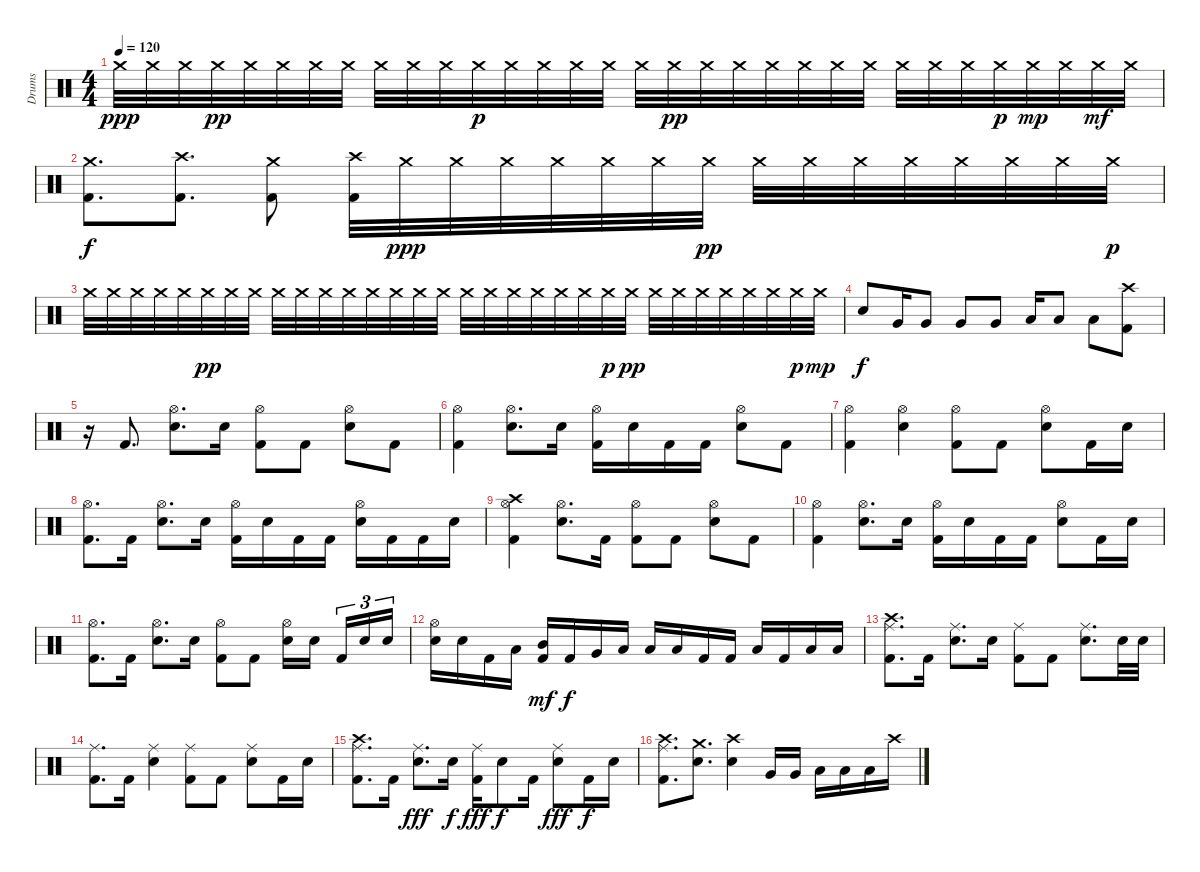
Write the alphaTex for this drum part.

\track ("Drums" "Drums") {instrument percussion}
\staff {score}
\articulation defaults
\ts (4 4)
\tempo 120
\clef neutral
\ks c "Crash medium (hit)".32{dy ppp} "Crash medium (hit)".32 "Crash medium (hit)".32 "Crash medium (hit)".32{dy pp} "Crash medium (hit)".32 "Crash medium (hit)".32 "Crash medium (hit)".32 "Crash medium (hit)".32 "Crash medium (hit)".32 "Crash medium (hit)".32 "Crash medium (hit)".32 "Crash medium (hit)".32{dy p} "Crash medium (hit)".32 "Crash medium (hit)".32 "Crash medium (hit)".32 "Crash medium (hit)".32 "Crash medium (hit)".32 "Crash medium (hit)".32{dy pp} "Crash medium (hit)".32 "Crash medium (hit)".32 "Crash medium (hit)".32 "Crash medium (hit)".32 "Crash medium (hit)".32 "Crash medium (hit)".32 "Crash medium (hit)".32 "Crash medium (hit)".32 "Crash medium (hit)".32 "Crash medium (hit)".32{dy p} "Crash medium (hit)".32{dy mp} "Crash medium (hit)".32 "Crash medium (hit)".32{dy mf} "Crash medium (hit)".32
|
("Crash medium (hit)" "Kick (hit) 2").8{d dy f} ("Crash high (hit)" "Kick (hit) 2").8{d} ("Crash medium (hit)" "Kick (hit) 2").8 ("Crash high (hit)" "Kick (hit) 2").32 "Crash medium (hit)".32{dy ppp} "Crash medium (hit)".32 "Crash medium (hit)".32 "Crash medium (hit)".32 "Crash medium (hit)".32 "Crash medium (hit)".32 "Crash medium (hit)".32{dy pp} "Crash medium (hit)".32 "Crash medium (hit)".32 "Crash medium (hit)".32 "Crash medium (hit)".32 "Crash medium (hit)".32 "Crash medium (hit)".32 "Crash medium (hit)".32 "Crash medium (hit)".32{dy p} |
"Crash medium (hit)".32 "Crash medium (hit)".32 "Crash medium (hit)".32 "Crash medium (hit)".32 "Crash medium (hit)".32 "Crash medium (hit)".32{dy pp} "Crash medium (hit)".32 "Crash medium (hit)".32 "Crash medium (hit)".32 "Crash medium (hit)".32 "Crash medium (hit)".32 "Crash medium (hit)".32 "Crash medium (hit)".32 "Crash medium (hit)".32 "Crash medium (hit)".32 "Crash medium (hit)".32 "Crash medium (hit)".32 "Crash medium (hit)".32 "Crash medium (hit)".32 "Crash medium (hit)".32 "Crash medium (hit)".32 "Crash medium (hit)".32 "Crash medium (hit)".32{dy p} "Crash medium (hit)".32{dy pp} "Crash medium (hit)".32 "Crash medium (hit)".32 "Crash medium (hit)".32 "Crash medium (hit)".32 "Crash medium (hit)".32 "Crash medium (hit)".32 "Crash medium (hit)".32{dy p} "Crash medium (hit)".32{dy mp} |
"Electric Snare (hit)".8{dy f} "Very Low Tom (hit)".16 "Very Low Tom (hit)".8 "Very Low Tom (hit)".8 "Very Low Tom (hit)".8 "Low Floor Tom (hit)".16 "Low Floor Tom (hit)".8 "Low Floor Tom (hit)".8 ("Crash high (hit)" "Kick (hit) 2").8 |
r.16 "Kick (hit) 2".8{d} ("Hi-Hat (open)" "Electric Snare (hit)").8{d} "Electric Snare (hit)".16 ("Hi-Hat (open)" "Kick (hit) 2").8 "Kick (hit) 2".8 ("Hi-Hat (open)" "Electric Snare (hit)").8 "Kick (hit) 2".8 |
("Hi-Hat (open)" "Kick (hit) 2").4 ("Hi-Hat (open)" "Electric Snare (hit)").8{d} "Electric Snare (hit)".16 ("Hi-Hat (open)" "Kick (hit) 2").16 "Electric Snare (hit)".16 "Kick (hit) 2".16 "Kick (hit) 2".16 ("Hi-Hat (open)" "Electric Snare (hit)").8 "Kick (hit) 2".8 |
("Hi-Hat (open)" "Kick (hit) 2").4 ("Hi-Hat (open)" "Electric Snare (hit)").4 ("Hi-Hat (open)" "Kick (hit) 2").8 "Kick (hit) 2".8 ("Hi-Hat (open)" "Electric Snare (hit)").8 "Kick (hit) 2".16 "Electric Snare (hit)".16 |
("Hi-Hat (open)" "Kick (hit) 2").8{d} "Kick (hit) 2".16 ("Hi-Hat (open)" "Electric Snare (hit)").8{d} "Electric Snare (hit)".16 ("Hi-Hat (open)" "Kick (hit) 2").16 "Electric Snare (hit)".16 "Kick (hit) 2".16 "Kick (hit) 2".16 ("Hi-Hat (open)" "Electric Snare (hit)").16 "Kick (hit) 2".16 "Kick (hit) 2".16 "Electric Snare (hit)".16 |
("Crash high (hit)" "Hi-Hat (open)" "Kick (hit) 2").4 ("Hi-Hat (open)" "Electric Snare (hit)").8{d} "Kick (hit) 2".16 ("Hi-Hat (open)" "Kick (hit) 2").8 "Kick (hit) 2".8 ("Hi-Hat (open)" "Electric Snare (hit)").8 "Kick (hit) 2".8 |
("Hi-Hat (open)" "Kick (hit) 2").4 ("Hi-Hat (open)" "Electric Snare (hit)").8{d} "Electric Snare (hit)".16 ("Hi-Hat (open)" "Kick (hit) 2").16 "Electric Snare (hit)".16 "Kick (hit) 2".16 "Kick (hit) 2".16 ("Hi-Hat (open)" "Electric Snare (hit)").8 "Kick (hit) 2".16 "Electric Snare (hit)".16 |
("Hi-Hat (open)" "Kick (hit) 2").8{d} "Kick (hit) 2".16 ("Hi-Hat (open)" "Electric Snare (hit)").8{d} "Electric Snare (hit)".16 ("Hi-Hat (open)" "Kick (hit) 2").8 "Kick (hit) 2".8 ("Hi-Hat (open)" "Electric Snare (hit)").16 "Electric Snare (hit)".16{beam splitsecondary} "Kick (hit) 2".16{tu (3 2)} "Electric Snare (hit)".16{tu (3 2)} "Electric Snare (hit)".16{tu (3 2)} |
("Hi-Hat (open)" "Electric Snare (hit)").16 "Electric Snare (hit)".16 "Kick (hit) 2".16 "Low Floor Tom (hit)".16 ("Mid Tom (hit)" "Kick (hit) 2").16{dy mf} "Kick (hit) 2".16{dy f} "Very Low Tom (hit)".16 "Low Tom (hit)".16 "Low Tom (hit)".16 "Low Tom (hit)".16 "Kick (hit) 2".16 "Kick (hit) 2".16 "Low Tom (hit)".16 "Kick (hit) 2".16 "Low Floor Tom (hit)".16 "Low Floor Tom (hit)".16 |
("Crash high (hit)" "Ride (middle)" "Kick (hit) 2").8{d} "Kick (hit) 2".16 ("Ride (middle)" "Electric Snare (hit)").8{d} "Electric Snare (hit)".16 ("Ride (middle)" "Kick (hit) 2").8 "Kick (hit) 2".8 ("Ride (middle)" "Electric Snare (hit)").8{d} "Electric Snare (hit)".32 "Electric Snare (hit)".32 |
("Ride (middle)" "Kick (hit) 2").8{d} "Kick (hit) 2".16 ("Ride (middle)" "Electric Snare (hit)").4 ("Ride (middle)" "Kick (hit) 2").8 "Kick (hit) 2".8 ("Ride (middle)" "Electric Snare (hit)").8 "Kick (hit) 2".16 "Electric Snare (hit)".16 |
("Crash high (hit)" "Ride (middle)" "Kick (hit) 2").8{d} "Kick (hit) 2".16 ("Ride (middle)" "Electric Snare (hit)").8{d dy fff} "Electric Snare (hit)".16{dy f} ("Ride (middle)" "Kick (hit) 2").16{dy fff} "Electric Snare (hit)".8{dy f} "Kick (hit) 2".16 ("Ride (middle)" "Electric Snare (hit)").8{dy fff} "Kick (hit) 2".16{dy f} "Electric Snare (hit)".16 |
("Crash high (hit)" "Ride (middle)" "Kick (hit) 2").8{d} ("Crash medium (hit)" "Electric Snare (hit)").8{d} ("Crash high (hit)" "Electric Snare (hit)").4 "Very Low Tom (hit)".16 "Very Low Tom (hit)".16 "Low Floor Tom (hit)".16 "Low Floor Tom (hit)".16 "Low Floor Tom (hit)".16 "Crash high (hit)".16
